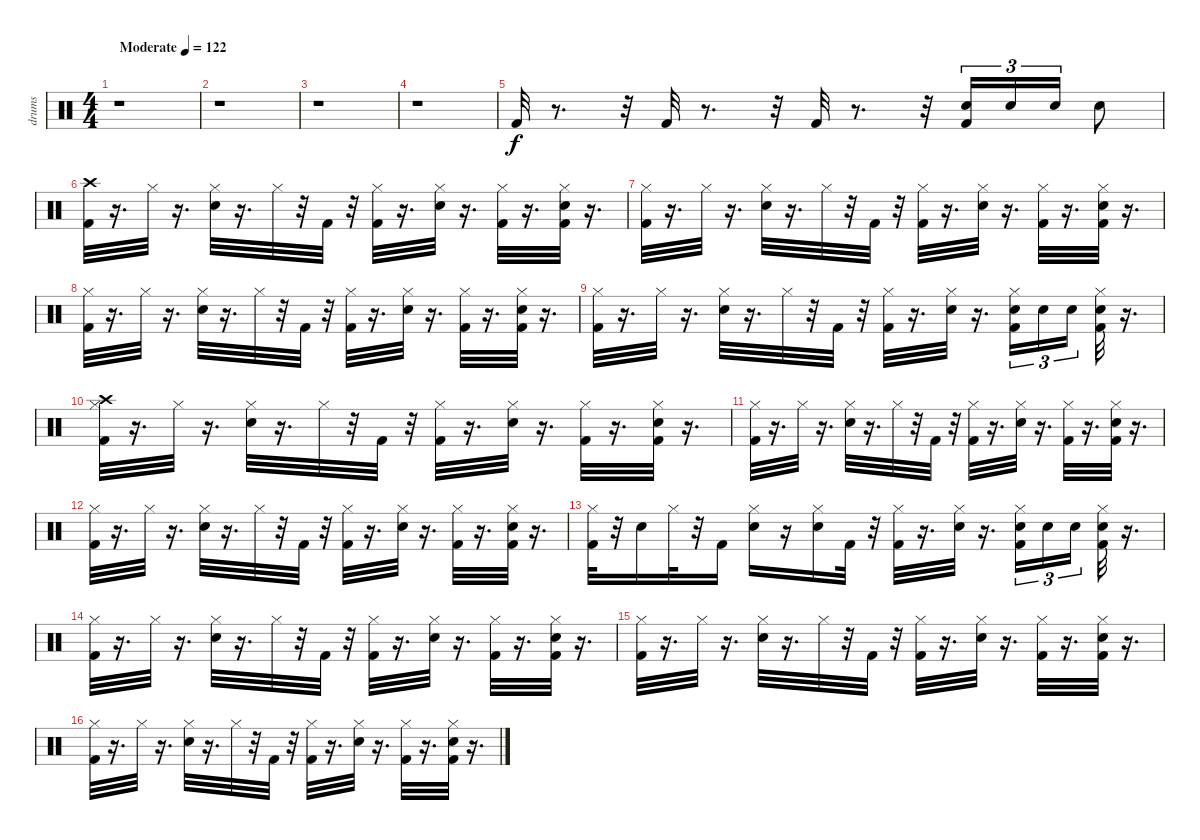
\track ("drums" "drums") {instrument percussion}
\staff {score}
\articulation defaults
\ts (4 4)
\tempo (122 "Moderate")
\clef neutral
\ks c
r.1{dy f} |
r.1 |
r.1 |
r.1 |
"Kick (hit) 2".32 r.8{d} r.32 "Kick (hit) 2".32 r.8{d} r.32 "Kick (hit) 2".32 r.8{d} r.32 ("Snare (hit) 2" "Kick (hit) 2").16{tu (3 2)} "Snare (hit) 2".16{tu (3 2)} "Snare (hit) 2".16{tu (3 2)} "Snare (hit) 2".8 |
("Kick (hit) 2" "Crash high (hit)").32 r.16{d} "Hi-Hat (closed)".32 r.16{d} ("Hi-Hat (closed)" "Snare (hit) 2").32 r.16{d} "Hi-Hat (closed)".32 r.32 "Kick (hit) 2".32 r.32 ("Hi-Hat (closed)" "Kick (hit) 2").32 r.16{d} ("Hi-Hat (closed)" "Snare (hit) 2").32 r.16{d} ("Hi-Hat (closed)" "Kick (hit) 2").32 r.16{d} ("Snare (hit) 2" "Hi-Hat (closed)" "Kick (hit) 2").32 r.16{d} |
("Kick (hit) 2" "Hi-Hat (closed)").32 r.16{d} "Hi-Hat (closed)".32 r.16{d} ("Hi-Hat (closed)" "Snare (hit) 2").32 r.16{d} "Hi-Hat (closed)".32 r.32 "Kick (hit) 2".32 r.32 ("Hi-Hat (closed)" "Kick (hit) 2").32 r.16{d} ("Hi-Hat (closed)" "Snare (hit) 2").32 r.16{d} ("Hi-Hat (closed)" "Kick (hit) 2").32 r.16{d} ("Snare (hit) 2" "Hi-Hat (closed)" "Kick (hit) 2").32 r.16{d} |
("Kick (hit) 2" "Hi-Hat (closed)").32 r.16{d} "Hi-Hat (closed)".32 r.16{d} ("Hi-Hat (closed)" "Snare (hit) 2").32 r.16{d} "Hi-Hat (closed)".32 r.32 "Kick (hit) 2".32 r.32 ("Hi-Hat (closed)" "Kick (hit) 2").32 r.16{d} ("Hi-Hat (closed)" "Snare (hit) 2").32 r.16{d} ("Hi-Hat (closed)" "Kick (hit) 2").32 r.16{d} ("Snare (hit) 2" "Hi-Hat (closed)" "Kick (hit) 2").32 r.16{d} |
("Kick (hit) 2" "Hi-Hat (closed)").32 r.16{d} "Hi-Hat (closed)".32 r.16{d} ("Hi-Hat (closed)" "Snare (hit) 2").32 r.16{d} "Hi-Hat (closed)".32 r.32 "Kick (hit) 2".32 r.32 ("Hi-Hat (closed)" "Kick (hit) 2").32 r.16{d} ("Hi-Hat (closed)" "Snare (hit) 2").32 r.16{d} ("Snare (hit) 2" "Hi-Hat (closed)" "Kick (hit) 2").16{tu (3 2)} "Snare (hit) 2".16{tu (3 2)} "Snare (hit) 2".16{tu (3 2)} ("Snare (hit) 2" "Hi-Hat (closed)" "Kick (hit) 2").32 r.16{d} |
("Crash high (hit)" "Kick (hit) 2" "Hi-Hat (closed)").32 r.16{d} "Hi-Hat (closed)".32 r.16{d} ("Hi-Hat (closed)" "Snare (hit) 2").32 r.16{d} "Hi-Hat (closed)".32 r.32 "Kick (hit) 2".32 r.32 ("Hi-Hat (closed)" "Kick (hit) 2").32 r.16{d} ("Hi-Hat (closed)" "Snare (hit) 2").32 r.16{d} ("Hi-Hat (closed)" "Kick (hit) 2").32 r.16{d} ("Snare (hit) 2" "Hi-Hat (closed)" "Kick (hit) 2").32 r.16{d} |
("Kick (hit) 2" "Hi-Hat (closed)").32 r.16{d} "Hi-Hat (closed)".32 r.16{d} ("Hi-Hat (closed)" "Snare (hit) 2").32 r.16{d} "Hi-Hat (closed)".32 r.32 "Kick (hit) 2".32 r.32 ("Hi-Hat (closed)" "Kick (hit) 2").32 r.16{d} ("Hi-Hat (closed)" "Snare (hit) 2").32 r.16{d} ("Hi-Hat (closed)" "Kick (hit) 2").32 r.16{d} ("Snare (hit) 2" "Hi-Hat (closed)" "Kick (hit) 2").32 r.16{d} |
("Kick (hit) 2" "Hi-Hat (closed)").32 r.16{d} "Hi-Hat (closed)".32 r.16{d} ("Hi-Hat (closed)" "Snare (hit) 2").32 r.16{d} "Hi-Hat (closed)".32 r.32 "Kick (hit) 2".32 r.32 ("Hi-Hat (closed)" "Kick (hit) 2").32 r.16{d} ("Hi-Hat (closed)" "Snare (hit) 2").32 r.16{d} ("Hi-Hat (closed)" "Kick (hit) 2").32 r.16{d} ("Snare (hit) 2" "Hi-Hat (closed)" "Kick (hit) 2").32 r.16{d} |
("Kick (hit) 2" "Hi-Hat (closed)").32 r.32 "Snare (hit) 2".16 "Hi-Hat (closed)".32 r.32 "Kick (hit) 2".16 ("Hi-Hat (closed)" "Snare (hit) 2").16 r.16 ("Snare (hit) 2" "Hi-Hat (closed)").16 "Kick (hit) 2".32 r.32 ("Hi-Hat (closed)" "Kick (hit) 2").32 r.16{d} ("Hi-Hat (closed)" "Snare (hit) 2").32 r.16{d} ("Snare (hit) 2" "Hi-Hat (closed)" "Kick (hit) 2").16{tu (3 2)} "Snare (hit) 2".16{tu (3 2)} "Snare (hit) 2".16{tu (3 2)} ("Snare (hit) 2" "Hi-Hat (closed)" "Kick (hit) 2").32 r.16{d} |
("Kick (hit) 2" "Hi-Hat (closed)").32 r.16{d} "Hi-Hat (closed)".32 r.16{d} ("Hi-Hat (closed)" "Snare (hit) 2").32 r.16{d} "Hi-Hat (closed)".32 r.32 "Kick (hit) 2".32 r.32 ("Hi-Hat (closed)" "Kick (hit) 2").32 r.16{d} ("Hi-Hat (closed)" "Snare (hit) 2").32 r.16{d} ("Hi-Hat (closed)" "Kick (hit) 2").32 r.16{d} ("Snare (hit) 2" "Hi-Hat (closed)" "Kick (hit) 2").32 r.16{d} |
("Kick (hit) 2" "Hi-Hat (closed)").32 r.16{d} "Hi-Hat (closed)".32 r.16{d} ("Hi-Hat (closed)" "Snare (hit) 2").32 r.16{d} "Hi-Hat (closed)".32 r.32 "Kick (hit) 2".32 r.32 ("Hi-Hat (closed)" "Kick (hit) 2").32 r.16{d} ("Hi-Hat (closed)" "Snare (hit) 2").32 r.16{d} ("Hi-Hat (closed)" "Kick (hit) 2").32 r.16{d} ("Snare (hit) 2" "Hi-Hat (closed)" "Kick (hit) 2").32 r.16{d} |
("Kick (hit) 2" "Hi-Hat (closed)").32 r.16{d} "Hi-Hat (closed)".32 r.16{d} ("Hi-Hat (closed)" "Snare (hit) 2").32 r.16{d} "Hi-Hat (closed)".32 r.32 "Kick (hit) 2".32 r.32 ("Hi-Hat (closed)" "Kick (hit) 2").32 r.16{d} ("Hi-Hat (closed)" "Snare (hit) 2").32 r.16{d} ("Hi-Hat (closed)" "Kick (hit) 2").32 r.16{d} ("Snare (hit) 2" "Hi-Hat (closed)" "Kick (hit) 2").32 r.16{d}
